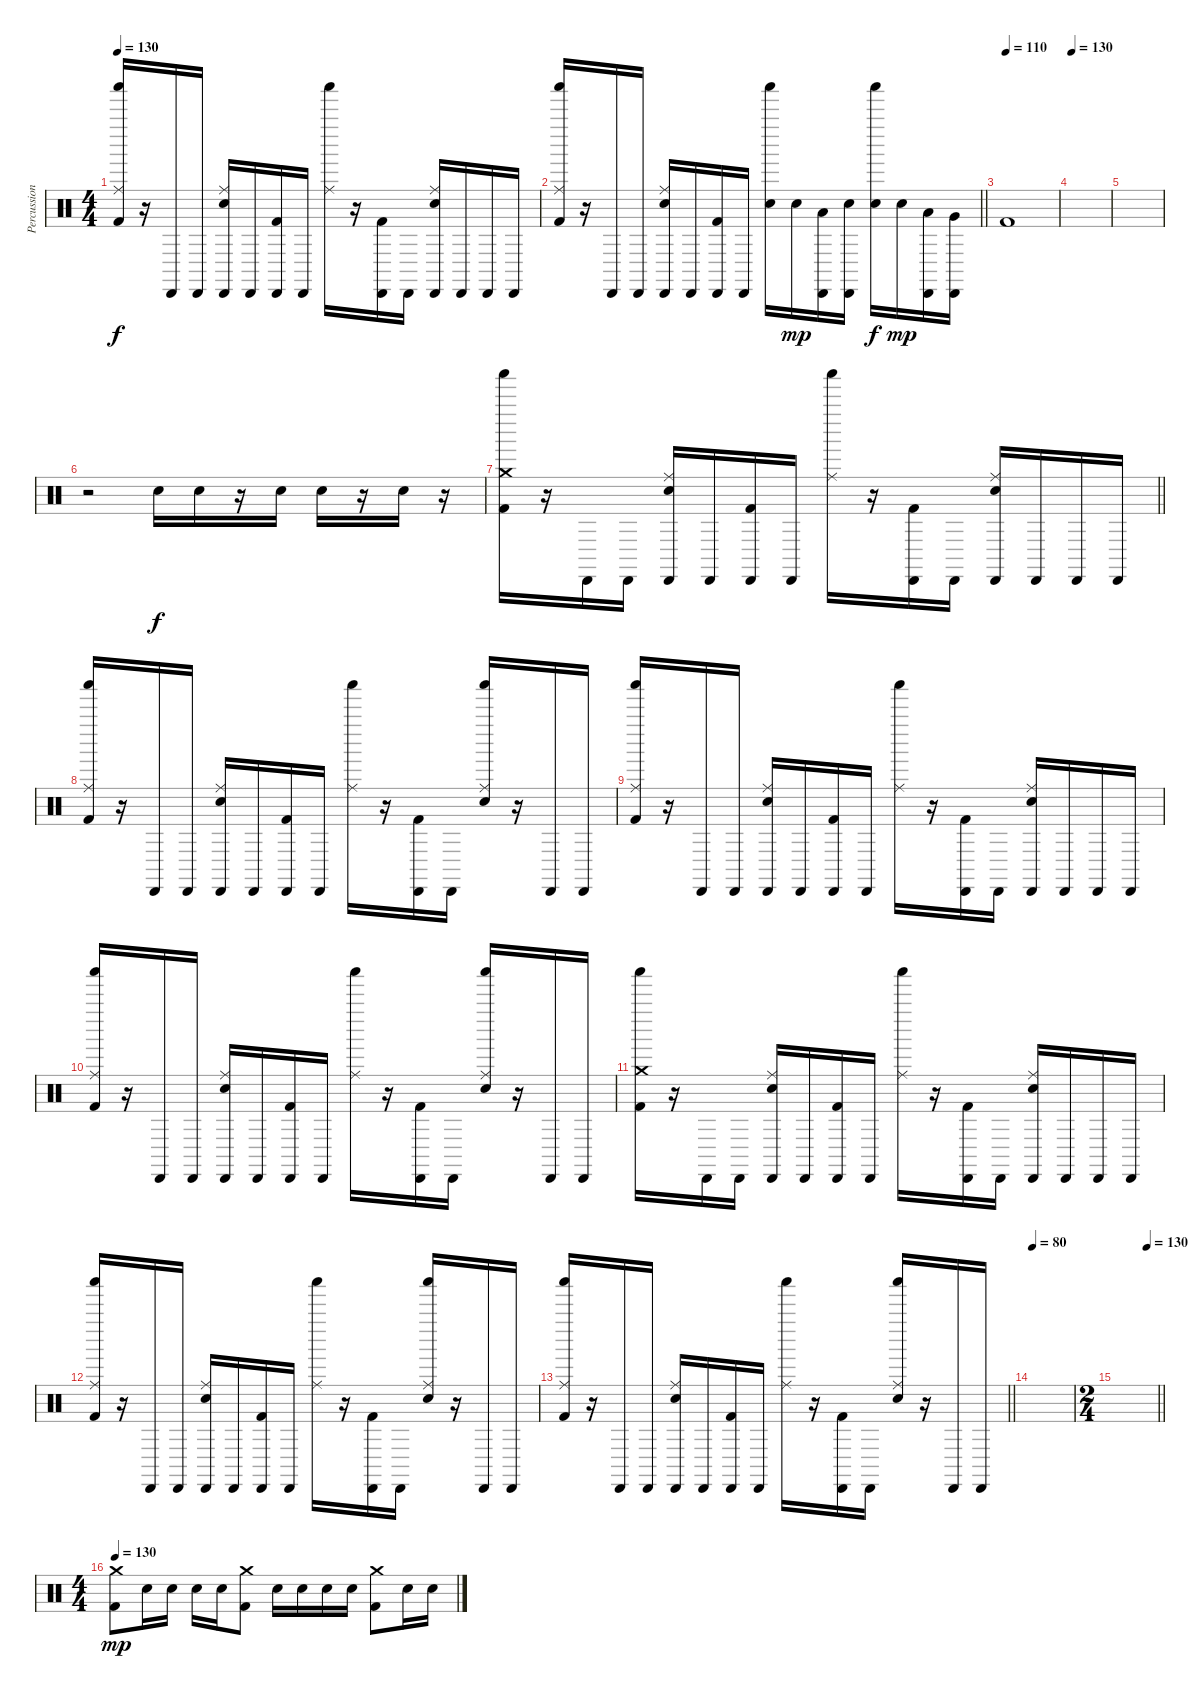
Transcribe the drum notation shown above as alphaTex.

\track ("Percussion" "Percussion") {instrument percussion}
\staff {score}
\articulation defaults
\ts (4 4)
\tempo 130
\clef neutral
\ks c
("Ride (middle)" "Shaker (hit)" "Kick (hit) 2").16{dy f} r.16 "Cabasa (hit)".16 "Cabasa (hit)".16 ("Ride (middle)" "Cabasa (hit)" "Electric Snare (hit)").16 "Cabasa (hit)".16 ("Cabasa (hit)" "Kick (hit) 2").16 "Cabasa (hit)".16 ("Ride (middle)" "Shaker (hit)").16 r.16 ("Cabasa (hit)" "Kick (hit) 2").16 "Cabasa (hit)".16 ("Ride (middle)" "Cabasa (hit)" "Electric Snare (hit)").16 "Cabasa (hit)".16 "Cabasa (hit)".16 "Cabasa (hit)".16 |
\barLineRight lightlight
("Ride (middle)" "Shaker (hit)" "Kick (hit) 2").16 r.16 "Cabasa (hit)".16 "Cabasa (hit)".16 ("Ride (middle)" "Cabasa (hit)" "Electric Snare (hit)").16 "Cabasa (hit)".16 ("Cabasa (hit)" "Kick (hit) 2").16 "Cabasa (hit)".16 ("Shaker (hit)" "Electric Snare (hit)").16 "Electric Snare (hit)".16{dy mp} ("Cabasa (hit)" "Low Tom (hit)").16 ("Cabasa (hit)" "Electric Snare (hit)").16 ("Shaker (hit)" "Electric Snare (hit)").16{dy f} "Electric Snare (hit)".16{dy mp} ("Cabasa (hit)" "Low Tom (hit)").16 ("Cabasa (hit)" "Very Low Tom (hit)").16 |
\tempo (110)
"Kick (hit) 2".1 |
\tempo 130
|
|
r.2 "Electric Snare (hit)".16{dy f} "Electric Snare (hit)".16 r.16 "Electric Snare (hit)".16 "Electric Snare (hit)".16 r.16 "Electric Snare (hit)".16 r.16 |
\barLineRight lightlight
("Crash medium (hit)" "Shaker (hit)" "Kick (hit) 2").16 r.16 "Cabasa (hit)".16 "Cabasa (hit)".16 ("Ride (middle)" "Cabasa (hit)" "Electric Snare (hit)").16 "Cabasa (hit)".16 ("Cabasa (hit)" "Kick (hit) 2").16 "Cabasa (hit)".16 ("Ride (middle)" "Shaker (hit)").16 r.16 ("Cabasa (hit)" "Kick (hit) 2").16 "Cabasa (hit)".16 ("Ride (middle)" "Cabasa (hit)" "Electric Snare (hit)").16 "Cabasa (hit)".16 "Cabasa (hit)".16 "Cabasa (hit)".16 |
("Ride (middle)" "Shaker (hit)" "Kick (hit) 2").16 r.16 "Cabasa (hit)".16 "Cabasa (hit)".16 ("Ride (middle)" "Cabasa (hit)" "Electric Snare (hit)").16 "Cabasa (hit)".16 ("Cabasa (hit)" "Kick (hit) 2").16 "Cabasa (hit)".16 ("Ride (middle)" "Shaker (hit)").16 r.16 ("Cabasa (hit)" "Kick (hit) 2").16 "Cabasa (hit)".16 ("Ride (middle)" "Shaker (hit)" "Electric Snare (hit)").16 r.16 "Cabasa (hit)".16 "Cabasa (hit)".16 |
("Ride (middle)" "Shaker (hit)" "Kick (hit) 2").16 r.16 "Cabasa (hit)".16 "Cabasa (hit)".16 ("Ride (middle)" "Cabasa (hit)" "Electric Snare (hit)").16 "Cabasa (hit)".16 ("Cabasa (hit)" "Kick (hit) 2").16 "Cabasa (hit)".16 ("Ride (middle)" "Shaker (hit)").16 r.16 ("Cabasa (hit)" "Kick (hit) 2").16 "Cabasa (hit)".16 ("Ride (middle)" "Cabasa (hit)" "Electric Snare (hit)").16 "Cabasa (hit)".16 "Cabasa (hit)".16 "Cabasa (hit)".16 |
("Ride (middle)" "Shaker (hit)" "Kick (hit) 2").16 r.16 "Cabasa (hit)".16 "Cabasa (hit)".16 ("Ride (middle)" "Cabasa (hit)" "Electric Snare (hit)").16 "Cabasa (hit)".16 ("Cabasa (hit)" "Kick (hit) 2").16 "Cabasa (hit)".16 ("Ride (middle)" "Shaker (hit)").16 r.16 ("Cabasa (hit)" "Kick (hit) 2").16 "Cabasa (hit)".16 ("Ride (middle)" "Shaker (hit)" "Electric Snare (hit)").16 r.16 "Cabasa (hit)".16 "Cabasa (hit)".16 |
("Crash medium (hit)" "Shaker (hit)" "Kick (hit) 2").16 r.16 "Cabasa (hit)".16 "Cabasa (hit)".16 ("Ride (middle)" "Cabasa (hit)" "Electric Snare (hit)").16 "Cabasa (hit)".16 ("Cabasa (hit)" "Kick (hit) 2").16 "Cabasa (hit)".16 ("Ride (middle)" "Shaker (hit)").16 r.16 ("Cabasa (hit)" "Kick (hit) 2").16 "Cabasa (hit)".16 ("Ride (middle)" "Cabasa (hit)" "Electric Snare (hit)").16 "Cabasa (hit)".16 "Cabasa (hit)".16 "Cabasa (hit)".16 |
("Ride (middle)" "Shaker (hit)" "Kick (hit) 2").16 r.16 "Cabasa (hit)".16 "Cabasa (hit)".16 ("Ride (middle)" "Cabasa (hit)" "Electric Snare (hit)").16 "Cabasa (hit)".16 ("Cabasa (hit)" "Kick (hit) 2").16 "Cabasa (hit)".16 ("Ride (middle)" "Shaker (hit)").16 r.16 ("Cabasa (hit)" "Kick (hit) 2").16 "Cabasa (hit)".16 ("Ride (middle)" "Shaker (hit)" "Electric Snare (hit)").16 r.16 "Cabasa (hit)".16 "Cabasa (hit)".16 |
\barLineRight lightlight
("Ride (middle)" "Shaker (hit)" "Kick (hit) 2").16 r.16 "Cabasa (hit)".16 "Cabasa (hit)".16 ("Ride (middle)" "Cabasa (hit)" "Electric Snare (hit)").16 "Cabasa (hit)".16 ("Cabasa (hit)" "Kick (hit) 2").16 "Cabasa (hit)".16 ("Ride (middle)" "Shaker (hit)").16 r.16 ("Cabasa (hit)" "Kick (hit) 2").16 "Cabasa (hit)".16 ("Ride (middle)" "Shaker (hit)" "Electric Snare (hit)").16 r.16 "Cabasa (hit)".16 "Cabasa (hit)".16 |
\tempo 80
|
\ts (2 4)
\tempo (130 0.75)
\barLineRight lightlight
|
\ts (4 4)
\tempo 130
("Crash medium (hit)" "Kick (hit) 2").8{dy mp} "Electric Snare (hit)".16 "Electric Snare (hit)".16 "Electric Snare (hit)".16 "Electric Snare (hit)".16 ("Crash medium (hit)" "Kick (hit) 2").8 "Electric Snare (hit)".16 "Electric Snare (hit)".16 "Electric Snare (hit)".16 "Electric Snare (hit)".16 ("Crash medium (hit)" "Kick (hit) 2").8 "Electric Snare (hit)".16 "Electric Snare (hit)".16
